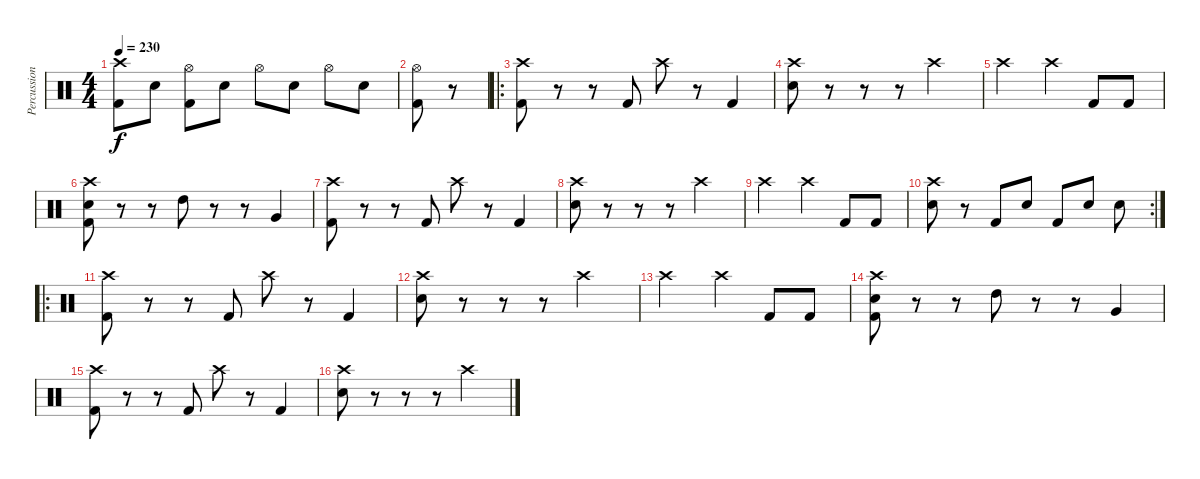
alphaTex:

\track ("Percussion" "Percussion") {instrument percussion}
\staff {score}
\articulation defaults
\ts (4 4)
\tempo 230
\clef neutral
\ks c
("Crash high (hit)" "Kick (hit) 2").8{dy f} "Electric Snare (hit)".8 ("Hi-Hat (open)" "Kick (hit) 2").8 "Electric Snare (hit)".8 "Hi-Hat (open)".8 "Electric Snare (hit)".8 "Hi-Hat (open)".8 "Electric Snare (hit)".8 |
("Hi-Hat (open)" "Kick (hit) 2").8 r.8 |
\ro
("Crash high (hit)" "Kick (hit) 2").8 r.8 r.8 "Kick (hit) 2".8 "Crash high (hit)".8 r.8 "Kick (hit) 2".4 |
("Crash high (hit)" "Electric Snare (hit)").8 r.8 r.8 r.8 "Crash high (hit)".2 |
"Crash high (hit)".2 "Crash high (hit)".4 "Kick (hit) 2".8 "Kick (hit) 2".8 |
("Crash high (hit)" "Electric Snare (hit)" "Kick (hit) 2").8 r.8 r.8 "High Tom (hit)".8 r.8 r.8 "Very Low Tom (hit)".4 |
("Crash high (hit)" "Kick (hit) 2").8 r.8 r.8 "Kick (hit) 2".8 "Crash high (hit)".8 r.8 "Kick (hit) 2".4 |
("Crash high (hit)" "Electric Snare (hit)").8 r.8 r.8 r.8 "Crash high (hit)".2 |
"Crash high (hit)".2 "Crash high (hit)".4 "Kick (hit) 2".8 "Kick (hit) 2".8 |
\rc 2
("Crash high (hit)" "Electric Snare (hit)").8 r.8 "Kick (hit) 2".8 "Electric Snare (hit)".8 "Kick (hit) 2".8 "Electric Snare (hit)".8 "Electric Snare (hit)".8 |
\ro
("Crash high (hit)" "Kick (hit) 2").8 r.8 r.8 "Kick (hit) 2".8 "Crash high (hit)".8 r.8 "Kick (hit) 2".4 |
("Crash high (hit)" "Electric Snare (hit)").8 r.8 r.8 r.8 "Crash high (hit)".2 |
"Crash high (hit)".2 "Crash high (hit)".4 "Kick (hit) 2".8 "Kick (hit) 2".8 |
("Crash high (hit)" "Electric Snare (hit)" "Kick (hit) 2").8 r.8 r.8 "High Tom (hit)".8 r.8 r.8 "Very Low Tom (hit)".4 |
("Crash high (hit)" "Kick (hit) 2").8 r.8 r.8 "Kick (hit) 2".8 "Crash high (hit)".8 r.8 "Kick (hit) 2".4 |
("Crash high (hit)" "Electric Snare (hit)").8 r.8 r.8 r.8 "Crash high (hit)".2
